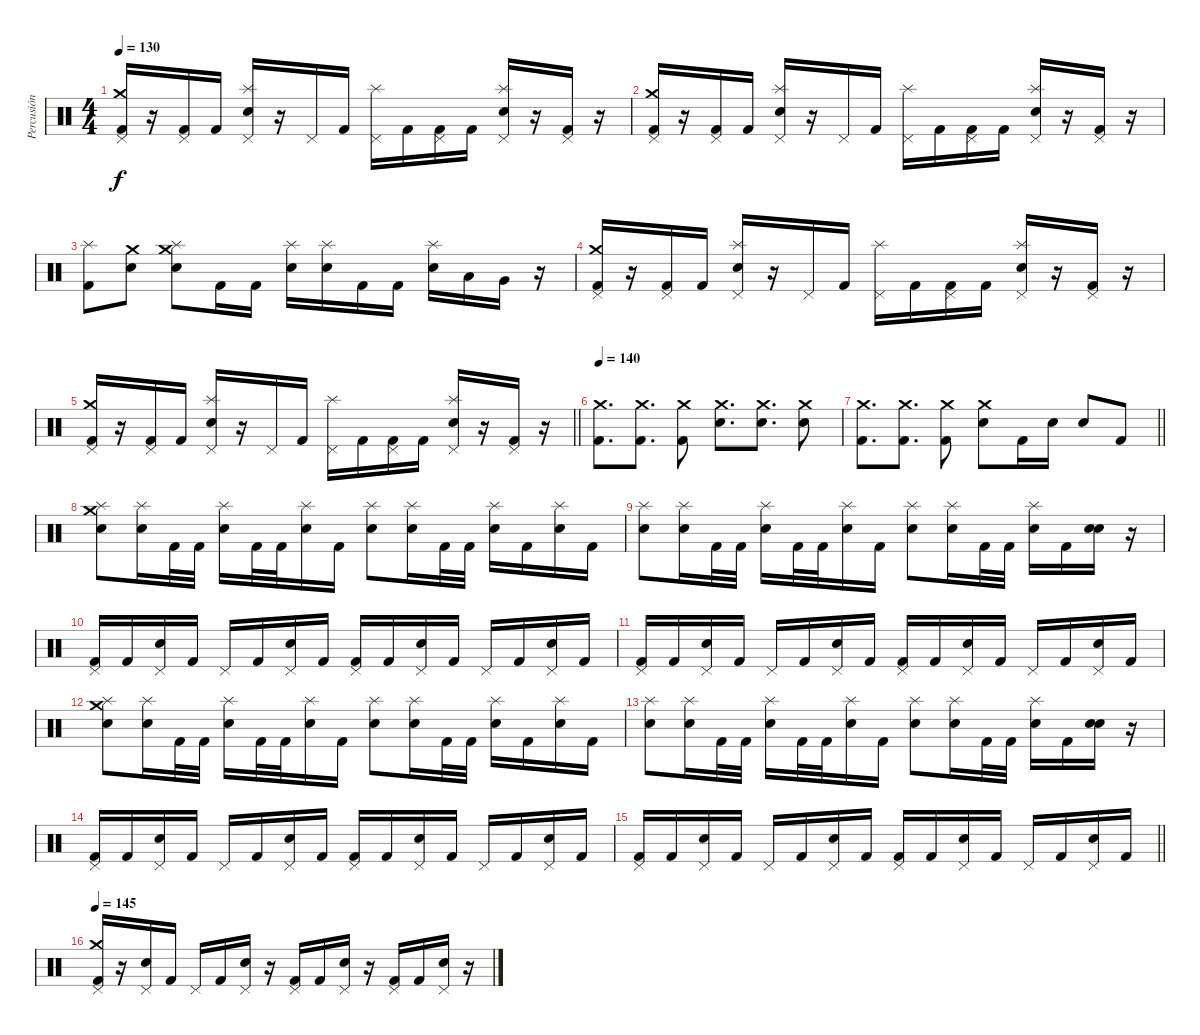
\track ("Percusión" "Percusión") {instrument percussion}
\staff {score}
\articulation defaults
\ts (4 4)
\tempo 130
\clef neutral
\ks c
("Pedal Hi-Hat (hit)" "Crash medium (hit)" "Kick (hit) 2").16{dy f} r.16 ("Pedal Hi-Hat (hit)" "Kick (hit) 2").16 "Kick (hit) 2".16 ("Splash (hit)" "Pedal Hi-Hat (hit)" "Electric Snare (hit)").16 r.16 "Pedal Hi-Hat (hit)".16 "Kick (hit) 2".16 ("Splash (hit)" "Pedal Hi-Hat (hit)").16 "Kick (hit) 2".16 ("Pedal Hi-Hat (hit)" "Kick (hit) 2").16 "Kick (hit) 2".16 ("Splash (hit)" "Pedal Hi-Hat (hit)" "Electric Snare (hit)").16 r.16 ("Pedal Hi-Hat (hit)" "Kick (hit) 2").16 r.16 |
("Pedal Hi-Hat (hit)" "Crash medium (hit)" "Kick (hit) 2").16 r.16 ("Pedal Hi-Hat (hit)" "Kick (hit) 2").16 "Kick (hit) 2".16 ("Splash (hit)" "Pedal Hi-Hat (hit)" "Electric Snare (hit)").16 r.16 "Pedal Hi-Hat (hit)".16 "Kick (hit) 2".16 ("Splash (hit)" "Pedal Hi-Hat (hit)").16 "Kick (hit) 2".16 ("Pedal Hi-Hat (hit)" "Kick (hit) 2").16 "Kick (hit) 2".16 ("Splash (hit)" "Pedal Hi-Hat (hit)" "Electric Snare (hit)").16 r.16 ("Pedal Hi-Hat (hit)" "Kick (hit) 2").16 r.16 |
("Splash (hit)" "Kick (hit) 2").8 ("Crash medium (hit)" "Electric Snare (hit)").8 ("Splash (hit)" "Crash medium (hit)" "Electric Snare (hit)").8 "Kick (hit) 2".16 "Kick (hit) 2".16 ("Splash (hit)" "Electric Snare (hit)").16 ("Splash (hit)" "Electric Snare (hit)").16 "Kick (hit) 2".16 "Kick (hit) 2".16 ("Splash (hit)" "Electric Snare (hit)").16 "Low Tom (hit)".16 "Very Low Tom (hit)".16 r.16 |
("Pedal Hi-Hat (hit)" "Crash medium (hit)" "Kick (hit) 2").16 r.16 ("Pedal Hi-Hat (hit)" "Kick (hit) 2").16 "Kick (hit) 2".16 ("Splash (hit)" "Pedal Hi-Hat (hit)" "Electric Snare (hit)").16 r.16 "Pedal Hi-Hat (hit)".16 "Kick (hit) 2".16 ("Splash (hit)" "Pedal Hi-Hat (hit)").16 "Kick (hit) 2".16 ("Pedal Hi-Hat (hit)" "Kick (hit) 2").16 "Kick (hit) 2".16 ("Splash (hit)" "Pedal Hi-Hat (hit)" "Electric Snare (hit)").16 r.16 ("Pedal Hi-Hat (hit)" "Kick (hit) 2").16 r.16 |
\barLineRight lightlight
("Pedal Hi-Hat (hit)" "Crash medium (hit)" "Kick (hit) 2").16 r.16 ("Pedal Hi-Hat (hit)" "Kick (hit) 2").16 "Kick (hit) 2".16 ("Splash (hit)" "Pedal Hi-Hat (hit)" "Electric Snare (hit)").16 r.16 "Pedal Hi-Hat (hit)".16 "Kick (hit) 2".16 ("Splash (hit)" "Pedal Hi-Hat (hit)").16 "Kick (hit) 2".16 ("Pedal Hi-Hat (hit)" "Kick (hit) 2").16 "Kick (hit) 2".16 ("Splash (hit)" "Pedal Hi-Hat (hit)" "Electric Snare (hit)").16 r.16 ("Pedal Hi-Hat (hit)" "Kick (hit) 2").16 r.16 |
\tempo 140
("Crash medium (hit)" "Kick (hit) 2").8{d} ("Crash medium (hit)" "Kick (hit) 2").8{d} ("Crash medium (hit)" "Kick (hit) 2").8 ("Crash medium (hit)" "Electric Snare (hit)").8{d} ("Crash medium (hit)" "Electric Snare (hit)").8{d} ("Crash medium (hit)" "Electric Snare (hit)").8 |
\barLineRight lightlight
("Crash medium (hit)" "Kick (hit) 2").8{d} ("Crash medium (hit)" "Kick (hit) 2").8{d} ("Crash medium (hit)" "Kick (hit) 2").8 ("Crash medium (hit)" "Electric Snare (hit)").8 "Kick (hit) 2".16 "Electric Snare (hit)".16 "Electric Snare (hit)".8 "Kick (hit) 2".8 |
("Crash medium (hit)" "Splash (hit)" "Electric Snare (hit)").8 ("Splash (hit)" "Electric Snare (hit)").16 "Kick (hit) 2".32 "Kick (hit) 2".32 ("Splash (hit)" "Electric Snare (hit)").16 "Kick (hit) 2".32 "Kick (hit) 2".32 ("Splash (hit)" "Electric Snare (hit)").16 "Kick (hit) 2".16 ("Splash (hit)" "Electric Snare (hit)").8 ("Splash (hit)" "Electric Snare (hit)").16 "Kick (hit) 2".32 "Kick (hit) 2".32 ("Splash (hit)" "Electric Snare (hit)").16 "Kick (hit) 2".16 ("Splash (hit)" "Electric Snare (hit)").16 "Kick (hit) 2".16 |
("Splash (hit)" "Electric Snare (hit)").8 ("Splash (hit)" "Electric Snare (hit)").16 "Kick (hit) 2".32 "Kick (hit) 2".32 ("Splash (hit)" "Electric Snare (hit)").16 "Kick (hit) 2".32 "Kick (hit) 2".32 ("Splash (hit)" "Electric Snare (hit)").16 "Kick (hit) 2".16 ("Splash (hit)" "Electric Snare (hit)").8 ("Splash (hit)" "Electric Snare (hit)").16 "Kick (hit) 2".32 "Kick (hit) 2".32 ("Splash (hit)" "Electric Snare (hit)").16 "Kick (hit) 2".16 ("Electric Snare (hit)" "Electric Snare (hit)").16{bd 60} r.16 |
("Pedal Hi-Hat (hit)" "Kick (hit) 2").16 "Kick (hit) 2".16 ("Pedal Hi-Hat (hit)" "Electric Snare (hit)").16 "Kick (hit) 2".16 "Pedal Hi-Hat (hit)".16 "Kick (hit) 2".16 ("Pedal Hi-Hat (hit)" "Electric Snare (hit)").16 "Kick (hit) 2".16 ("Pedal Hi-Hat (hit)" "Kick (hit) 2").16 "Kick (hit) 2".16 ("Pedal Hi-Hat (hit)" "Electric Snare (hit)").16 "Kick (hit) 2".16 "Pedal Hi-Hat (hit)".16 "Kick (hit) 2".16 ("Pedal Hi-Hat (hit)" "Electric Snare (hit)").16 "Kick (hit) 2".16 |
("Pedal Hi-Hat (hit)" "Kick (hit) 2").16 "Kick (hit) 2".16 ("Pedal Hi-Hat (hit)" "Electric Snare (hit)").16 "Kick (hit) 2".16 "Pedal Hi-Hat (hit)".16 "Kick (hit) 2".16 ("Pedal Hi-Hat (hit)" "Electric Snare (hit)").16 "Kick (hit) 2".16 ("Pedal Hi-Hat (hit)" "Kick (hit) 2").16 "Kick (hit) 2".16 ("Pedal Hi-Hat (hit)" "Electric Snare (hit)").16 "Kick (hit) 2".16 "Pedal Hi-Hat (hit)".16 "Kick (hit) 2".16 ("Pedal Hi-Hat (hit)" "Electric Snare (hit)").16 "Kick (hit) 2".16 |
("Crash medium (hit)" "Splash (hit)" "Electric Snare (hit)").8 ("Splash (hit)" "Electric Snare (hit)").16 "Kick (hit) 2".32 "Kick (hit) 2".32 ("Splash (hit)" "Electric Snare (hit)").16 "Kick (hit) 2".32 "Kick (hit) 2".32 ("Splash (hit)" "Electric Snare (hit)").16 "Kick (hit) 2".16 ("Splash (hit)" "Electric Snare (hit)").8 ("Splash (hit)" "Electric Snare (hit)").16 "Kick (hit) 2".32 "Kick (hit) 2".32 ("Splash (hit)" "Electric Snare (hit)").16 "Kick (hit) 2".16 ("Splash (hit)" "Electric Snare (hit)").16 "Kick (hit) 2".16 |
("Splash (hit)" "Electric Snare (hit)").8 ("Splash (hit)" "Electric Snare (hit)").16 "Kick (hit) 2".32 "Kick (hit) 2".32 ("Splash (hit)" "Electric Snare (hit)").16 "Kick (hit) 2".32 "Kick (hit) 2".32 ("Splash (hit)" "Electric Snare (hit)").16 "Kick (hit) 2".16 ("Splash (hit)" "Electric Snare (hit)").8 ("Splash (hit)" "Electric Snare (hit)").16 "Kick (hit) 2".32 "Kick (hit) 2".32 ("Splash (hit)" "Electric Snare (hit)").16 "Kick (hit) 2".16 ("Electric Snare (hit)" "Electric Snare (hit)").16{bd 60} r.16 |
("Pedal Hi-Hat (hit)" "Kick (hit) 2").16 "Kick (hit) 2".16 ("Pedal Hi-Hat (hit)" "Electric Snare (hit)").16 "Kick (hit) 2".16 "Pedal Hi-Hat (hit)".16 "Kick (hit) 2".16 ("Pedal Hi-Hat (hit)" "Electric Snare (hit)").16 "Kick (hit) 2".16 ("Pedal Hi-Hat (hit)" "Kick (hit) 2").16 "Kick (hit) 2".16 ("Pedal Hi-Hat (hit)" "Electric Snare (hit)").16 "Kick (hit) 2".16 "Pedal Hi-Hat (hit)".16 "Kick (hit) 2".16 ("Pedal Hi-Hat (hit)" "Electric Snare (hit)").16 "Kick (hit) 2".16 |
\barLineRight lightlight
("Pedal Hi-Hat (hit)" "Kick (hit) 2").16 "Kick (hit) 2".16 ("Pedal Hi-Hat (hit)" "Electric Snare (hit)").16 "Kick (hit) 2".16 "Pedal Hi-Hat (hit)".16 "Kick (hit) 2".16 ("Pedal Hi-Hat (hit)" "Electric Snare (hit)").16 "Kick (hit) 2".16 ("Pedal Hi-Hat (hit)" "Kick (hit) 2").16 "Kick (hit) 2".16 ("Pedal Hi-Hat (hit)" "Electric Snare (hit)").16 "Kick (hit) 2".16 "Pedal Hi-Hat (hit)".16 "Kick (hit) 2".16 ("Pedal Hi-Hat (hit)" "Electric Snare (hit)").16 "Kick (hit) 2".16 |
\tempo 145
("Crash medium (hit)" "Pedal Hi-Hat (hit)" "Kick (hit) 2").16 r.16 ("Pedal Hi-Hat (hit)" "Electric Snare (hit)").16 "Kick (hit) 2".16 "Pedal Hi-Hat (hit)".16 "Kick (hit) 2".16 ("Pedal Hi-Hat (hit)" "Electric Snare (hit)").16 r.16 ("Pedal Hi-Hat (hit)" "Kick (hit) 2").16 "Kick (hit) 2".16 ("Pedal Hi-Hat (hit)" "Electric Snare (hit)").16 r.16 ("Pedal Hi-Hat (hit)" "Kick (hit) 2").16 "Kick (hit) 2".16 ("Pedal Hi-Hat (hit)" "Electric Snare (hit)").16 r.16
